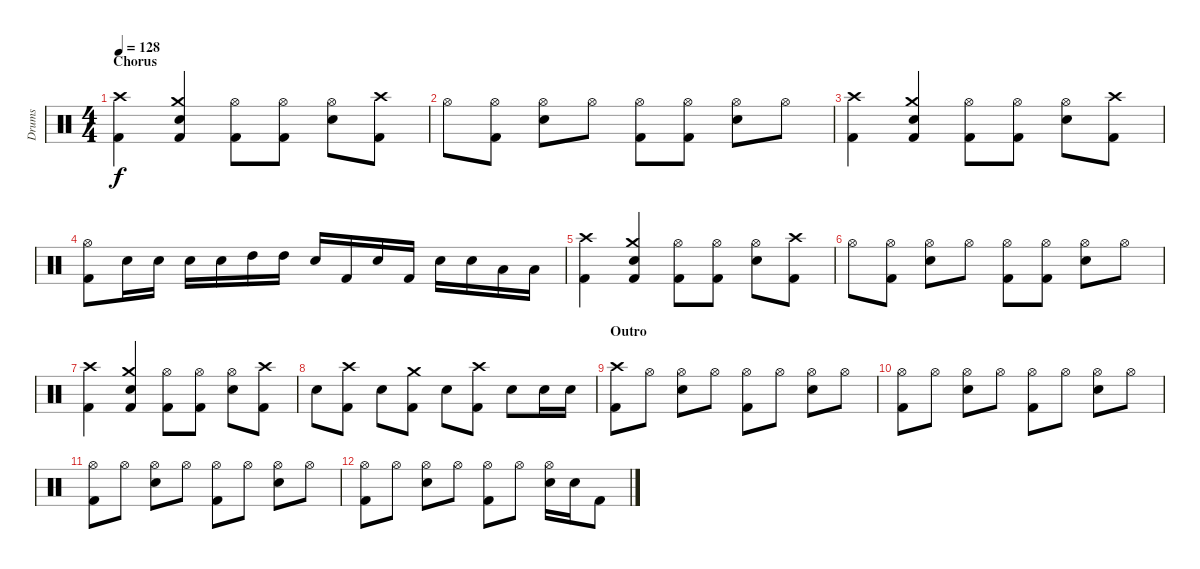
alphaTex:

\track ("Drums" "Drums") {instrument percussion}
\staff {score}
\articulation defaults
\ts (4 4)
\section ("" "Chorus ")
\tempo 128
\clef neutral
\ks c
("Crash high (hit)" "Kick (hit) 2").4{dy f} ("Crash medium (hit)" "Electric Snare (hit)" "Kick (hit) 2").4 ("Hi-Hat (open)" "Kick (hit) 2").8 ("Hi-Hat (open)" "Kick (hit) 2").8 ("Hi-Hat (open)" "Electric Snare (hit)").8 ("Crash high (hit)" "Kick (hit) 2").8 |
"Hi-Hat (open)".8 ("Hi-Hat (open)" "Kick (hit) 2").8 ("Hi-Hat (open)" "Electric Snare (hit)").8 "Hi-Hat (open)".8 ("Hi-Hat (open)" "Kick (hit) 2").8 ("Hi-Hat (open)" "Kick (hit) 2").8 ("Hi-Hat (open)" "Electric Snare (hit)").8 "Hi-Hat (open)".8 |
("Crash high (hit)" "Kick (hit) 2").4 ("Crash medium (hit)" "Electric Snare (hit)" "Kick (hit) 2").4 ("Hi-Hat (open)" "Kick (hit) 2").8 ("Hi-Hat (open)" "Kick (hit) 2").8 ("Hi-Hat (open)" "Electric Snare (hit)").8 ("Crash high (hit)" "Kick (hit) 2").8 |
("Hi-Hat (open)" "Kick (hit) 2").8 "Electric Snare (hit)".16 "Electric Snare (hit)".16 "Electric Snare (hit)".16 "Electric Snare (hit)".16 "High Tom (hit)".16 "High Tom (hit)".16 "Electric Snare (hit)".16 "Kick (hit) 2".16 "Electric Snare (hit)".16 "Kick (hit) 2".16 "Electric Snare (hit)".16 "Electric Snare (hit)".16 "Low Tom (hit)".16 "Low Tom (hit)".16 |
("Crash high (hit)" "Kick (hit) 2").4 ("Crash medium (hit)" "Electric Snare (hit)" "Kick (hit) 2").4 ("Hi-Hat (open)" "Kick (hit) 2").8 ("Hi-Hat (open)" "Kick (hit) 2").8 ("Hi-Hat (open)" "Electric Snare (hit)").8 ("Crash high (hit)" "Kick (hit) 2").8 |
"Hi-Hat (open)".8 ("Hi-Hat (open)" "Kick (hit) 2").8 ("Hi-Hat (open)" "Electric Snare (hit)").8 "Hi-Hat (open)".8 ("Hi-Hat (open)" "Kick (hit) 2").8 ("Hi-Hat (open)" "Kick (hit) 2").8 ("Hi-Hat (open)" "Electric Snare (hit)").8 "Hi-Hat (open)".8 |
("Crash high (hit)" "Kick (hit) 2").4 ("Crash medium (hit)" "Electric Snare (hit)" "Kick (hit) 2").4 ("Hi-Hat (open)" "Kick (hit) 2").8 ("Hi-Hat (open)" "Kick (hit) 2").8 ("Hi-Hat (open)" "Electric Snare (hit)").8 ("Crash high (hit)" "Kick (hit) 2").8 |
"Electric Snare (hit)".8 ("Crash high (hit)" "Kick (hit) 2").8 "Electric Snare (hit)".8 ("Crash medium (hit)" "Kick (hit) 2").8 "Electric Snare (hit)".8 ("Crash high (hit)" "Kick (hit) 2").8 "Electric Snare (hit)".8 "Electric Snare (hit)".16 "Electric Snare (hit)".16 |
\section ("" "Outro")
("Crash high (hit)" "Kick (hit) 2").8 "Hi-Hat (open)".8 ("Hi-Hat (open)" "Electric Snare (hit)").8 "Hi-Hat (open)".8 ("Hi-Hat (open)" "Kick (hit) 2").8 "Hi-Hat (open)".8 ("Hi-Hat (open)" "Electric Snare (hit)").8 "Hi-Hat (open)".8 |
("Hi-Hat (open)" "Kick (hit) 2").8 "Hi-Hat (open)".8 ("Hi-Hat (open)" "Electric Snare (hit)").8 "Hi-Hat (open)".8 ("Hi-Hat (open)" "Kick (hit) 2").8 "Hi-Hat (open)".8 ("Hi-Hat (open)" "Electric Snare (hit)").8 "Hi-Hat (open)".8 |
("Hi-Hat (open)" "Kick (hit) 2").8 "Hi-Hat (open)".8 ("Hi-Hat (open)" "Electric Snare (hit)").8 "Hi-Hat (open)".8 ("Hi-Hat (open)" "Kick (hit) 2").8 "Hi-Hat (open)".8 ("Hi-Hat (open)" "Electric Snare (hit)").8 "Hi-Hat (open)".8 |
("Hi-Hat (open)" "Kick (hit) 2").8 "Hi-Hat (open)".8 ("Hi-Hat (open)" "Electric Snare (hit)").8 "Hi-Hat (open)".8 ("Hi-Hat (open)" "Kick (hit) 2").8 "Hi-Hat (open)".8 ("Hi-Hat (open)" "Electric Snare (hit)").16 "Electric Snare (hit)".16 "Kick (hit) 2".8
